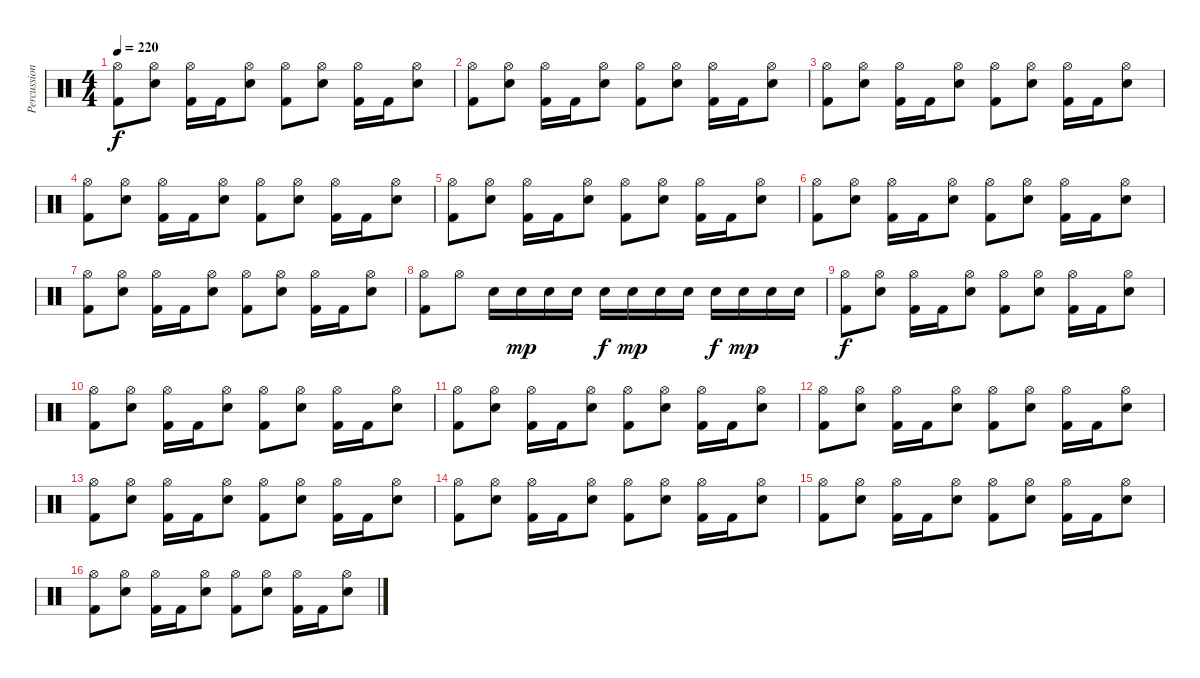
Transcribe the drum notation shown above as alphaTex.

\track ("Percussions" "Percussion") {instrument percussion}
\staff {score}
\articulation defaults
\ts (4 4)
\tempo 220
\clef neutral
\ks c
("Hi-Hat (open)" "Kick (hit) 2").8{dy f} ("Hi-Hat (open)" "Snare (hit) 2").8 ("Hi-Hat (open)" "Kick (hit) 2").16 "Kick (hit) 2".16 ("Hi-Hat (open)" "Snare (hit) 2").8 ("Hi-Hat (open)" "Kick (hit) 2").8 ("Hi-Hat (open)" "Snare (hit) 2").8 ("Hi-Hat (open)" "Kick (hit) 2").16 "Kick (hit) 2".16 ("Hi-Hat (open)" "Snare (hit) 2").8 |
("Hi-Hat (open)" "Kick (hit) 2").8 ("Hi-Hat (open)" "Snare (hit) 2").8 ("Hi-Hat (open)" "Kick (hit) 2").16 "Kick (hit) 2".16 ("Hi-Hat (open)" "Snare (hit) 2").8 ("Hi-Hat (open)" "Kick (hit) 2").8 ("Hi-Hat (open)" "Snare (hit) 2").8 ("Hi-Hat (open)" "Kick (hit) 2").16 "Kick (hit) 2".16 ("Hi-Hat (open)" "Snare (hit) 2").8 |
("Hi-Hat (open)" "Kick (hit) 2").8 ("Hi-Hat (open)" "Snare (hit) 2").8 ("Hi-Hat (open)" "Kick (hit) 2").16 "Kick (hit) 2".16 ("Hi-Hat (open)" "Snare (hit) 2").8 ("Hi-Hat (open)" "Kick (hit) 2").8 ("Hi-Hat (open)" "Snare (hit) 2").8 ("Hi-Hat (open)" "Kick (hit) 2").16 "Kick (hit) 2".16 ("Hi-Hat (open)" "Snare (hit) 2").8 |
("Hi-Hat (open)" "Kick (hit) 2").8 ("Hi-Hat (open)" "Snare (hit) 2").8 ("Hi-Hat (open)" "Kick (hit) 2").16 "Kick (hit) 2".16 ("Hi-Hat (open)" "Snare (hit) 2").8 ("Hi-Hat (open)" "Kick (hit) 2").8 ("Hi-Hat (open)" "Snare (hit) 2").8 ("Hi-Hat (open)" "Kick (hit) 2").16 "Kick (hit) 2".16 ("Hi-Hat (open)" "Snare (hit) 2").8 |
("Hi-Hat (open)" "Kick (hit) 2").8 ("Hi-Hat (open)" "Snare (hit) 2").8 ("Hi-Hat (open)" "Kick (hit) 2").16 "Kick (hit) 2".16 ("Hi-Hat (open)" "Snare (hit) 2").8 ("Hi-Hat (open)" "Kick (hit) 2").8 ("Hi-Hat (open)" "Snare (hit) 2").8 ("Hi-Hat (open)" "Kick (hit) 2").16 "Kick (hit) 2".16 ("Hi-Hat (open)" "Snare (hit) 2").8 |
("Hi-Hat (open)" "Kick (hit) 2").8 ("Hi-Hat (open)" "Snare (hit) 2").8 ("Hi-Hat (open)" "Kick (hit) 2").16 "Kick (hit) 2".16 ("Hi-Hat (open)" "Snare (hit) 2").8 ("Hi-Hat (open)" "Kick (hit) 2").8 ("Hi-Hat (open)" "Snare (hit) 2").8 ("Hi-Hat (open)" "Kick (hit) 2").16 "Kick (hit) 2".16 ("Hi-Hat (open)" "Snare (hit) 2").8 |
("Hi-Hat (open)" "Kick (hit) 2").8 ("Hi-Hat (open)" "Snare (hit) 2").8 ("Hi-Hat (open)" "Kick (hit) 2").16 "Kick (hit) 2".16 ("Hi-Hat (open)" "Snare (hit) 2").8 ("Hi-Hat (open)" "Kick (hit) 2").8 ("Hi-Hat (open)" "Snare (hit) 2").8 ("Hi-Hat (open)" "Kick (hit) 2").16 "Kick (hit) 2".16 ("Hi-Hat (open)" "Snare (hit) 2").8 |
("Hi-Hat (open)" "Kick (hit) 2").8 "Hi-Hat (open)".8 "Snare (hit) 2".16 "Snare (hit) 2".16{dy mp} "Snare (hit) 2".16 "Snare (hit) 2".16 "Snare (hit) 2".16{dy f} "Snare (hit) 2".16{dy mp} "Snare (hit) 2".16 "Snare (hit) 2".16 "Snare (hit) 2".16{dy f} "Snare (hit) 2".16{dy mp} "Snare (hit) 2".16 "Snare (hit) 2".16 |
("Hi-Hat (open)" "Kick (hit) 2").8{dy f} ("Hi-Hat (open)" "Snare (hit) 2").8 ("Hi-Hat (open)" "Kick (hit) 2").16 "Kick (hit) 2".16 ("Hi-Hat (open)" "Snare (hit) 2").8 ("Hi-Hat (open)" "Kick (hit) 2").8 ("Hi-Hat (open)" "Snare (hit) 2").8 ("Hi-Hat (open)" "Kick (hit) 2").16 "Kick (hit) 2".16 ("Hi-Hat (open)" "Snare (hit) 2").8 |
("Hi-Hat (open)" "Kick (hit) 2").8 ("Hi-Hat (open)" "Snare (hit) 2").8 ("Hi-Hat (open)" "Kick (hit) 2").16 "Kick (hit) 2".16 ("Hi-Hat (open)" "Snare (hit) 2").8 ("Hi-Hat (open)" "Kick (hit) 2").8 ("Hi-Hat (open)" "Snare (hit) 2").8 ("Hi-Hat (open)" "Kick (hit) 2").16 "Kick (hit) 2".16 ("Hi-Hat (open)" "Snare (hit) 2").8 |
("Hi-Hat (open)" "Kick (hit) 2").8 ("Hi-Hat (open)" "Snare (hit) 2").8 ("Hi-Hat (open)" "Kick (hit) 2").16 "Kick (hit) 2".16 ("Hi-Hat (open)" "Snare (hit) 2").8 ("Hi-Hat (open)" "Kick (hit) 2").8 ("Hi-Hat (open)" "Snare (hit) 2").8 ("Hi-Hat (open)" "Kick (hit) 2").16 "Kick (hit) 2".16 ("Hi-Hat (open)" "Snare (hit) 2").8 |
("Hi-Hat (open)" "Kick (hit) 2").8 ("Hi-Hat (open)" "Snare (hit) 2").8 ("Hi-Hat (open)" "Kick (hit) 2").16 "Kick (hit) 2".16 ("Hi-Hat (open)" "Snare (hit) 2").8 ("Hi-Hat (open)" "Kick (hit) 2").8 ("Hi-Hat (open)" "Snare (hit) 2").8 ("Hi-Hat (open)" "Kick (hit) 2").16 "Kick (hit) 2".16 ("Hi-Hat (open)" "Snare (hit) 2").8 |
("Hi-Hat (open)" "Kick (hit) 2").8 ("Hi-Hat (open)" "Snare (hit) 2").8 ("Hi-Hat (open)" "Kick (hit) 2").16 "Kick (hit) 2".16 ("Hi-Hat (open)" "Snare (hit) 2").8 ("Hi-Hat (open)" "Kick (hit) 2").8 ("Hi-Hat (open)" "Snare (hit) 2").8 ("Hi-Hat (open)" "Kick (hit) 2").16 "Kick (hit) 2".16 ("Hi-Hat (open)" "Snare (hit) 2").8 |
("Hi-Hat (open)" "Kick (hit) 2").8 ("Hi-Hat (open)" "Snare (hit) 2").8 ("Hi-Hat (open)" "Kick (hit) 2").16 "Kick (hit) 2".16 ("Hi-Hat (open)" "Snare (hit) 2").8 ("Hi-Hat (open)" "Kick (hit) 2").8 ("Hi-Hat (open)" "Snare (hit) 2").8 ("Hi-Hat (open)" "Kick (hit) 2").16 "Kick (hit) 2".16 ("Hi-Hat (open)" "Snare (hit) 2").8 |
("Hi-Hat (open)" "Kick (hit) 2").8 ("Hi-Hat (open)" "Snare (hit) 2").8 ("Hi-Hat (open)" "Kick (hit) 2").16 "Kick (hit) 2".16 ("Hi-Hat (open)" "Snare (hit) 2").8 ("Hi-Hat (open)" "Kick (hit) 2").8 ("Hi-Hat (open)" "Snare (hit) 2").8 ("Hi-Hat (open)" "Kick (hit) 2").16 "Kick (hit) 2".16 ("Hi-Hat (open)" "Snare (hit) 2").8 |
("Hi-Hat (open)" "Kick (hit) 2").8 ("Hi-Hat (open)" "Snare (hit) 2").8 ("Hi-Hat (open)" "Kick (hit) 2").16 "Kick (hit) 2".16 ("Hi-Hat (open)" "Snare (hit) 2").8 ("Hi-Hat (open)" "Kick (hit) 2").8 ("Hi-Hat (open)" "Snare (hit) 2").8 ("Hi-Hat (open)" "Kick (hit) 2").16 "Kick (hit) 2".16 ("Hi-Hat (open)" "Snare (hit) 2").8
